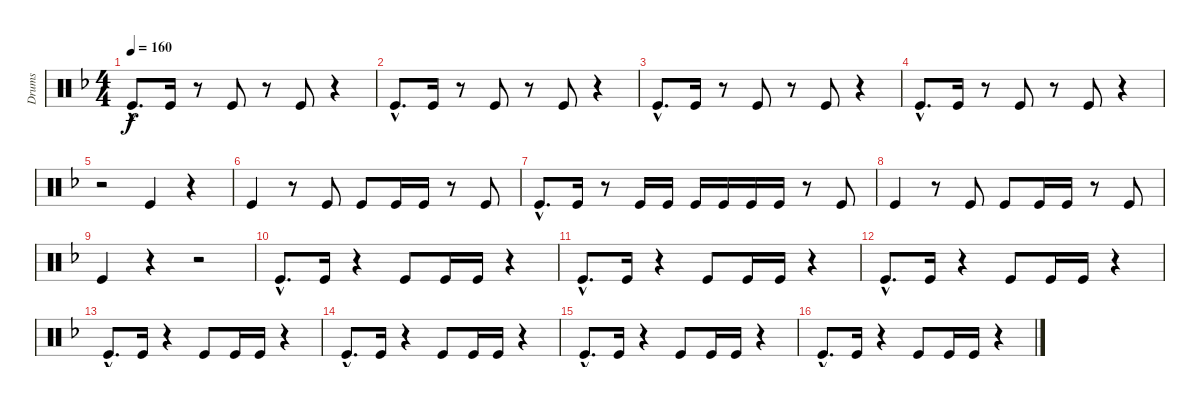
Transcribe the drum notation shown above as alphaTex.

\track ("Drums" "Drums") {instrument percussion}
\staff {score}
\articulation defaults
\ts (4 4)
\tempo 160
\clef neutral
\ks f "Kick (hit)"{hac}.8{d dy f} "Kick (hit)".16
r.8 "Kick (hit)".8 r.8 "Kick (hit)".8 r.4 |
"Kick (hit)"{hac}.8{d} "Kick (hit)".16 r.8 "Kick (hit)".8 r.8 "Kick (hit)".8 r.4 |
"Kick (hit)"{hac}.8{d} "Kick (hit)".16 r.8 "Kick (hit)".8 r.8 "Kick (hit)".8 r.4 |
"Kick (hit)"{hac}.8{d} "Kick (hit)".16 r.8 "Kick (hit)".8 r.8 "Kick (hit)".8 r.4 |
r.2 "Kick (hit)".4 r.4 |
"Kick (hit)".4 r.8 "Kick (hit)".8 "Kick (hit)".8 "Kick (hit)".16 "Kick (hit)".16 r.8 "Kick (hit)".8 |
"Kick (hit)"{hac}.8{d} "Kick (hit)".16 r.8 "Kick (hit)".16 "Kick (hit)".16 "Kick (hit)".16 "Kick (hit)".16 "Kick (hit)".16 "Kick (hit)".16 r.8 "Kick (hit)".8 |
"Kick (hit)".4 r.8 "Kick (hit)".8 "Kick (hit)".8 "Kick (hit)".16 "Kick (hit)".16 r.8 "Kick (hit)".8 |
"Kick (hit)".4 r.4 r.2 |
"Kick (hit)"{hac}.8{d} "Kick (hit)".16 r.4 "Kick (hit)".8 "Kick (hit)".16 "Kick (hit)".16 r.4 |
"Kick (hit)"{hac}.8{d} "Kick (hit)".16 r.4 "Kick (hit)".8 "Kick (hit)".16 "Kick (hit)".16 r.4 |
"Kick (hit)"{hac}.8{d} "Kick (hit)".16 r.4 "Kick (hit)".8 "Kick (hit)".16 "Kick (hit)".16 r.4 |
"Kick (hit)"{hac}.8{d} "Kick (hit)".16 r.4 "Kick (hit)".8 "Kick (hit)".16 "Kick (hit)".16 r.4 |
"Kick (hit)"{hac}.8{d} "Kick (hit)".16 r.4 "Kick (hit)".8 "Kick (hit)".16 "Kick (hit)".16 r.4 |
"Kick (hit)"{hac}.8{d} "Kick (hit)".16 r.4 "Kick (hit)".8 "Kick (hit)".16 "Kick (hit)".16 r.4 |
"Kick (hit)"{hac}.8{d} "Kick (hit)".16 r.4 "Kick (hit)".8 "Kick (hit)".16 "Kick (hit)".16 r.4
